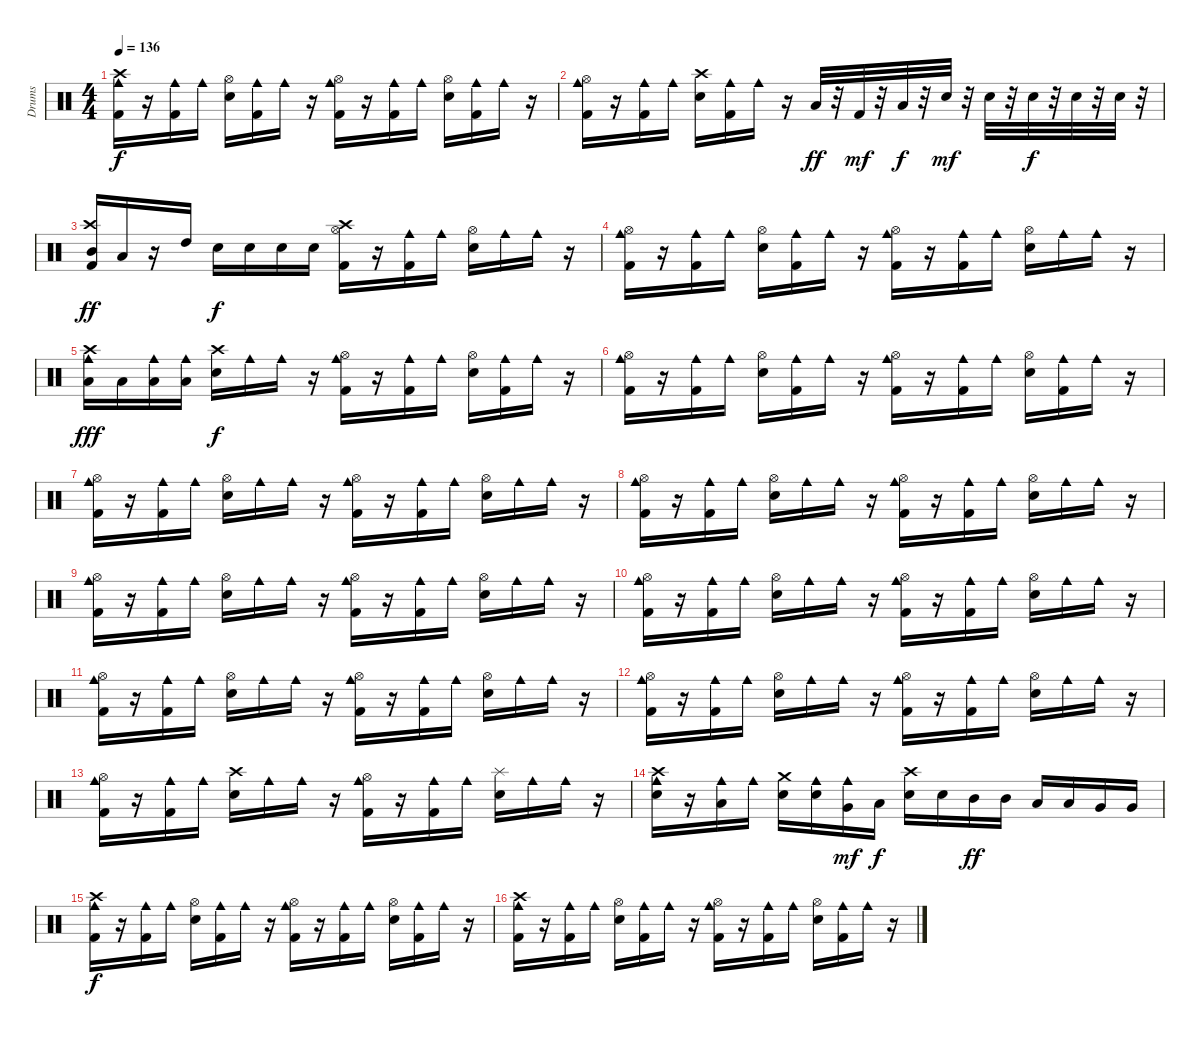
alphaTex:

\track ("Drums" "Drums") {instrument percussion}
\staff {score}
\articulation defaults
\ts (4 4)
\tempo 136
\clef neutral
\ks c
("Cowbell medium (hit)" "Kick (hit) 2" "Crash high (hit)").16{dy f} r.16 ("Cowbell medium (hit)" "Kick (hit) 2").16 "Cowbell medium (hit)".16 ("Metronome (bell)" "Hi-Hat (open)").16 ("Cowbell medium (hit)" "Kick (hit) 2").16 "Cowbell medium (hit)".16 r.16 ("Kick (hit) 2" "Cowbell medium (hit)" "Hi-Hat (open)").16 r.16 ("Cowbell medium (hit)" "Kick (hit) 2").16 "Cowbell medium (hit)".16 ("Metronome (bell)" "Hi-Hat (open)").16 ("Cowbell medium (hit)" "Kick (hit) 2").16 "Cowbell medium (hit)".16 r.16 |
("Kick (hit) 2" "Cowbell medium (hit)" "Hi-Hat (open)").16 r.16 ("Kick (hit) 2" "Cowbell medium (hit)").16 "Cowbell medium (hit)".16 ("Metronome (bell)" "Crash high (hit)").16 ("Cowbell medium (hit)" "Kick (hit) 2").16 "Cowbell medium (hit)".16 r.16 "Low Tom (hit)".32{dy ff} r.32 "Kick (hit) 2".32{dy mf} r.32 "Low Floor Tom (hit)".32{dy f} r.32 "Metronome (bell)".32{dy mf} r.32 "Metronome (bell)".32 r.32 "Metronome (bell)".32{dy f} r.32 "Metronome (bell)".32 r.32 "Metronome (bell)".32 r.32 |
("Mid Tom (hit)" "Kick (hit) 2" "Crash high (hit)").16{dy ff} "Low Tom (hit)".16 r.16 "High Tom (hit)".16 "Metronome (bell)".16{dy f} "Metronome (bell)".16 "Metronome (bell)".16 "Metronome (bell)".16 ("Hi-Hat (open)" "Kick (hit) 2" "Crash high (hit)").16 r.16 ("Cowbell medium (hit)" "Kick (hit) 2").16 "Cowbell medium (hit)".16 ("Metronome (bell)" "Hi-Hat (open)").16 "Cowbell medium (hit)".16 "Cowbell medium (hit)".16 r.16 |
("Kick (hit) 2" "Cowbell medium (hit)" "Hi-Hat (open)").16 r.16 ("Kick (hit) 2" "Cowbell medium (hit)").16 "Cowbell medium (hit)".16 ("Metronome (bell)" "Hi-Hat (open)").16 ("Cowbell medium (hit)" "Kick (hit) 2").16 "Cowbell medium (hit)".16 r.16 ("Kick (hit) 2" "Cowbell medium (hit)" "Hi-Hat (open)").16 r.16 ("Kick (hit) 2" "Cowbell medium (hit)").16 "Cowbell medium (hit)".16 ("Metronome (bell)" "Hi-Hat (open)").16 "Cowbell medium (hit)".16 "Cowbell medium (hit)".16 r.16 |
("Cowbell medium (hit)" "Low Tom (hit)" "Crash high (hit)").16{dy fff} "Low Tom (hit)".16 ("Cowbell medium (hit)" "Low Tom (hit)").16 ("Cowbell medium (hit)" "Low Tom (hit)").16 ("Metronome (bell)" "Crash high (hit)").16{dy f} "Cowbell medium (hit)".16 "Cowbell medium (hit)".16 r.16 ("Kick (hit) 2" "Cowbell medium (hit)" "Hi-Hat (open)").16 r.16 ("Cowbell medium (hit)" "Kick (hit) 2").16 "Cowbell medium (hit)".16 ("Metronome (bell)" "Hi-Hat (open)").16 ("Cowbell medium (hit)" "Kick (hit) 2").16 "Cowbell medium (hit)".16 r.16 |
("Kick (hit) 2" "Cowbell medium (hit)" "Hi-Hat (open)").16 r.16 ("Kick (hit) 2" "Cowbell medium (hit)").16 "Cowbell medium (hit)".16 ("Metronome (bell)" "Hi-Hat (open)").16 ("Cowbell medium (hit)" "Kick (hit) 2").16 "Cowbell medium (hit)".16 r.16 ("Cowbell medium (hit)" "Kick (hit) 2" "Hi-Hat (open)").16 r.16 ("Cowbell medium (hit)" "Kick (hit) 2").16 "Cowbell medium (hit)".16 ("Metronome (bell)" "Hi-Hat (open)").16 ("Cowbell medium (hit)" "Kick (hit) 2").16 "Cowbell medium (hit)".16 r.16 |
("Kick (hit) 2" "Cowbell medium (hit)" "Hi-Hat (open)").16 r.16 ("Kick (hit) 2" "Cowbell medium (hit)").16 "Cowbell medium (hit)".16 ("Metronome (bell)" "Hi-Hat (open)").16 "Cowbell medium (hit)".16 "Cowbell medium (hit)".16 r.16 ("Cowbell medium (hit)" "Kick (hit) 2" "Hi-Hat (open)").16 r.16 ("Cowbell medium (hit)" "Kick (hit) 2").16 "Cowbell medium (hit)".16 ("Metronome (bell)" "Hi-Hat (open)").16 "Cowbell medium (hit)".16 "Cowbell medium (hit)".16 r.16 |
("Kick (hit) 2" "Cowbell medium (hit)" "Hi-Hat (open)").16 r.16 ("Kick (hit) 2" "Cowbell medium (hit)").16 "Cowbell medium (hit)".16 ("Metronome (bell)" "Hi-Hat (open)").16 "Cowbell medium (hit)".16 "Cowbell medium (hit)".16 r.16 ("Cowbell medium (hit)" "Kick (hit) 2" "Hi-Hat (open)").16 r.16 ("Cowbell medium (hit)" "Kick (hit) 2").16 "Cowbell medium (hit)".16 ("Metronome (bell)" "Hi-Hat (open)").16 "Cowbell medium (hit)".16 "Cowbell medium (hit)".16 r.16 |
("Kick (hit) 2" "Cowbell medium (hit)" "Hi-Hat (open)").16 r.16 ("Kick (hit) 2" "Cowbell medium (hit)").16 "Cowbell medium (hit)".16 ("Metronome (bell)" "Hi-Hat (open)").16 "Cowbell medium (hit)".16 "Cowbell medium (hit)".16 r.16 ("Cowbell medium (hit)" "Kick (hit) 2" "Hi-Hat (open)").16 r.16 ("Cowbell medium (hit)" "Kick (hit) 2").16 "Cowbell medium (hit)".16 ("Metronome (bell)" "Hi-Hat (open)").16 "Cowbell medium (hit)".16 "Cowbell medium (hit)".16 r.16 |
("Kick (hit) 2" "Cowbell medium (hit)" "Hi-Hat (open)").16 r.16 ("Kick (hit) 2" "Cowbell medium (hit)").16 "Cowbell medium (hit)".16 ("Metronome (bell)" "Hi-Hat (open)").16 "Cowbell medium (hit)".16 "Cowbell medium (hit)".16 r.16 ("Cowbell medium (hit)" "Kick (hit) 2" "Hi-Hat (open)").16 r.16 ("Cowbell medium (hit)" "Kick (hit) 2").16 "Cowbell medium (hit)".16 ("Metronome (bell)" "Hi-Hat (open)").16 "Cowbell medium (hit)".16 "Cowbell medium (hit)".16 r.16 |
("Kick (hit) 2" "Cowbell medium (hit)" "Hi-Hat (open)").16 r.16 ("Kick (hit) 2" "Cowbell medium (hit)").16 "Cowbell medium (hit)".16 ("Metronome (bell)" "Hi-Hat (open)").16 "Cowbell medium (hit)".16 "Cowbell medium (hit)".16 r.16 ("Cowbell medium (hit)" "Kick (hit) 2" "Hi-Hat (open)").16 r.16 ("Cowbell medium (hit)" "Kick (hit) 2").16 "Cowbell medium (hit)".16 ("Metronome (bell)" "Hi-Hat (open)").16 "Cowbell medium (hit)".16 "Cowbell medium (hit)".16 r.16 |
("Kick (hit) 2" "Cowbell medium (hit)" "Hi-Hat (open)").16 r.16 ("Kick (hit) 2" "Cowbell medium (hit)").16 "Cowbell medium (hit)".16 ("Metronome (bell)" "Hi-Hat (open)").16 "Cowbell medium (hit)".16 "Cowbell medium (hit)".16 r.16 ("Cowbell medium (hit)" "Kick (hit) 2" "Hi-Hat (open)").16 r.16 ("Cowbell medium (hit)" "Kick (hit) 2").16 "Cowbell medium (hit)".16 ("Metronome (bell)" "Hi-Hat (open)").16 "Cowbell medium (hit)".16 "Cowbell medium (hit)".16 r.16 |
("Kick (hit) 2" "Cowbell medium (hit)" "Hi-Hat (open)").16 r.16 ("Kick (hit) 2" "Cowbell medium (hit)").16 "Cowbell medium (hit)".16 ("Metronome (bell)" "Crash high (hit)").16 "Cowbell medium (hit)".16 "Cowbell medium (hit)".16 r.16 ("Cowbell medium (hit)" "Kick (hit) 2" "Hi-Hat (open)").16 r.16 ("Cowbell medium (hit)" "Kick (hit) 2").16 "Cowbell medium (hit)".16 ("Metronome (bell)" "Splash (hit)").16 "Cowbell medium (hit)".16 "Cowbell medium (hit)".16 r.16 |
("Cowbell medium (hit)" "Metronome (bell)" "Crash high (hit)").16 r.16 ("Cowbell medium (hit)" "Low Tom (hit)").16 "Cowbell medium (hit)".16 ("Metronome (bell)" "Crash medium (hit)").16 ("Cowbell medium (hit)" "Metronome (bell)").16 ("Cowbell medium (hit)" "Very Low Tom (hit)").16{dy mf} "Low Floor Tom (hit)".16{dy f} ("Metronome (bell)" "Crash high (hit)").16 "Metronome (bell)".16 "Mid Tom (hit)".16{dy ff} "Mid Tom (hit)".16 "Low Tom (hit)".16 "Low Tom (hit)".16 "Very Low Tom (hit)".16 "Very Low Tom (hit)".16 |
("Kick (hit) 2" "Cowbell medium (hit)" "Crash high (hit)").16{dy f} r.16 ("Kick (hit) 2" "Cowbell medium (hit)").16 "Cowbell medium (hit)".16 ("Metronome (bell)" "Hi-Hat (open)").16 ("Cowbell medium (hit)" "Kick (hit) 2").16 "Cowbell medium (hit)".16 r.16 ("Cowbell medium (hit)" "Kick (hit) 2" "Hi-Hat (open)").16 r.16 ("Cowbell medium (hit)" "Kick (hit) 2").16 "Cowbell medium (hit)".16 ("Metronome (bell)" "Hi-Hat (open)").16 ("Cowbell medium (hit)" "Kick (hit) 2").16 "Cowbell medium (hit)".16 r.16 |
("Kick (hit) 2" "Cowbell medium (hit)" "Crash high (hit)").16 r.16 ("Kick (hit) 2" "Cowbell medium (hit)").16 "Cowbell medium (hit)".16 ("Metronome (bell)" "Hi-Hat (open)").16 ("Cowbell medium (hit)" "Kick (hit) 2").16 "Cowbell medium (hit)".16 r.16 ("Cowbell medium (hit)" "Kick (hit) 2" "Hi-Hat (open)").16 r.16 ("Cowbell medium (hit)" "Kick (hit) 2").16 "Cowbell medium (hit)".16 ("Metronome (bell)" "Hi-Hat (open)").16 ("Cowbell medium (hit)" "Kick (hit) 2").16 "Cowbell medium (hit)".16 r.16
